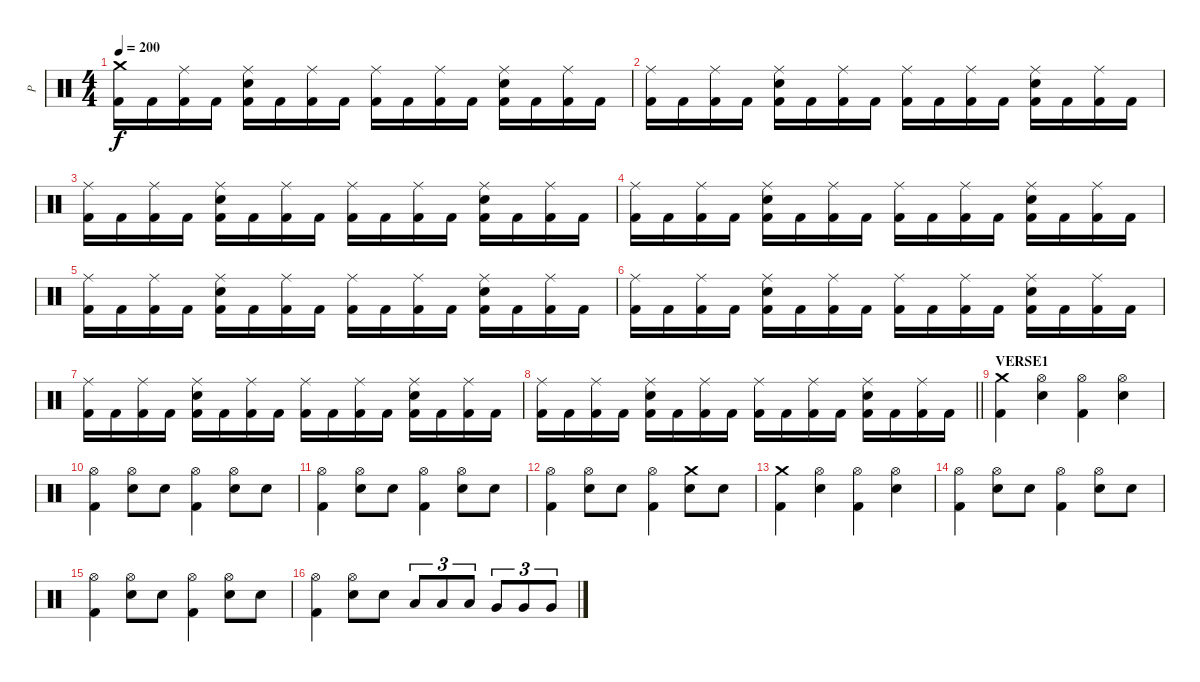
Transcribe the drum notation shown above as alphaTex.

\track ("P" "P") {instrument percussion}
\staff {score}
\articulation defaults
\ts (4 4)
\tempo 200
\clef neutral
\ks c
("Crash medium (hit)" "Kick (hit) 2").16{dy f} "Kick (hit) 2".16 ("Ride (middle)" "Kick (hit) 2").16 "Kick (hit) 2".16 ("Ride (middle)" "Electric Snare (hit)" "Kick (hit) 2").16 "Kick (hit) 2".16 ("Ride (middle)" "Kick (hit) 2").16 "Kick (hit) 2".16 ("Ride (middle)" "Kick (hit) 2").16 "Kick (hit) 2".16 ("Ride (middle)" "Kick (hit) 2").16 "Kick (hit) 2".16 ("Ride (middle)" "Electric Snare (hit)" "Kick (hit) 2").16 "Kick (hit) 2".16 ("Ride (middle)" "Kick (hit) 2").16 "Kick (hit) 2".16 |
("Ride (middle)" "Kick (hit) 2").16 "Kick (hit) 2".16 ("Ride (middle)" "Kick (hit) 2").16 "Kick (hit) 2".16 ("Ride (middle)" "Electric Snare (hit)" "Kick (hit) 2").16 "Kick (hit) 2".16 ("Ride (middle)" "Kick (hit) 2").16 "Kick (hit) 2".16 ("Ride (middle)" "Kick (hit) 2").16 "Kick (hit) 2".16 ("Ride (middle)" "Kick (hit) 2").16 "Kick (hit) 2".16 ("Ride (middle)" "Electric Snare (hit)" "Kick (hit) 2").16 "Kick (hit) 2".16 ("Ride (middle)" "Kick (hit) 2").16 "Kick (hit) 2".16 |
("Ride (middle)" "Kick (hit) 2").16 "Kick (hit) 2".16 ("Ride (middle)" "Kick (hit) 2").16 "Kick (hit) 2".16 ("Ride (middle)" "Electric Snare (hit)" "Kick (hit) 2").16 "Kick (hit) 2".16 ("Ride (middle)" "Kick (hit) 2").16 "Kick (hit) 2".16 ("Ride (middle)" "Kick (hit) 2").16 "Kick (hit) 2".16 ("Ride (middle)" "Kick (hit) 2").16 "Kick (hit) 2".16 ("Ride (middle)" "Electric Snare (hit)" "Kick (hit) 2").16 "Kick (hit) 2".16 ("Ride (middle)" "Kick (hit) 2").16 "Kick (hit) 2".16 |
("Ride (middle)" "Kick (hit) 2").16 "Kick (hit) 2".16 ("Ride (middle)" "Kick (hit) 2").16 "Kick (hit) 2".16 ("Ride (middle)" "Electric Snare (hit)" "Kick (hit) 2").16 "Kick (hit) 2".16 ("Ride (middle)" "Kick (hit) 2").16 "Kick (hit) 2".16 ("Ride (middle)" "Kick (hit) 2").16 "Kick (hit) 2".16 ("Ride (middle)" "Kick (hit) 2").16 "Kick (hit) 2".16 ("Ride (middle)" "Electric Snare (hit)" "Kick (hit) 2").16 "Kick (hit) 2".16 ("Ride (middle)" "Kick (hit) 2").16 "Kick (hit) 2".16 |
("Ride (middle)" "Kick (hit) 2").16 "Kick (hit) 2".16 ("Ride (middle)" "Kick (hit) 2").16 "Kick (hit) 2".16 ("Ride (middle)" "Electric Snare (hit)" "Kick (hit) 2").16 "Kick (hit) 2".16 ("Ride (middle)" "Kick (hit) 2").16 "Kick (hit) 2".16 ("Ride (middle)" "Kick (hit) 2").16 "Kick (hit) 2".16 ("Ride (middle)" "Kick (hit) 2").16 "Kick (hit) 2".16 ("Ride (middle)" "Electric Snare (hit)" "Kick (hit) 2").16 "Kick (hit) 2".16 ("Ride (middle)" "Kick (hit) 2").16 "Kick (hit) 2".16 |
("Ride (middle)" "Kick (hit) 2").16 "Kick (hit) 2".16 ("Ride (middle)" "Kick (hit) 2").16 "Kick (hit) 2".16 ("Ride (middle)" "Electric Snare (hit)" "Kick (hit) 2").16 "Kick (hit) 2".16 ("Ride (middle)" "Kick (hit) 2").16 "Kick (hit) 2".16 ("Ride (middle)" "Kick (hit) 2").16 "Kick (hit) 2".16 ("Ride (middle)" "Kick (hit) 2").16 "Kick (hit) 2".16 ("Ride (middle)" "Electric Snare (hit)" "Kick (hit) 2").16 "Kick (hit) 2".16 ("Ride (middle)" "Kick (hit) 2").16 "Kick (hit) 2".16 |
("Ride (middle)" "Kick (hit) 2").16 "Kick (hit) 2".16 ("Ride (middle)" "Kick (hit) 2").16 "Kick (hit) 2".16 ("Ride (middle)" "Electric Snare (hit)" "Kick (hit) 2").16 "Kick (hit) 2".16 ("Ride (middle)" "Kick (hit) 2").16 "Kick (hit) 2".16 ("Ride (middle)" "Kick (hit) 2").16 "Kick (hit) 2".16 ("Ride (middle)" "Kick (hit) 2").16 "Kick (hit) 2".16 ("Ride (middle)" "Electric Snare (hit)" "Kick (hit) 2").16 "Kick (hit) 2".16 ("Ride (middle)" "Kick (hit) 2").16 "Kick (hit) 2".16 |
\barLineRight lightlight
("Ride (middle)" "Kick (hit) 2").16 "Kick (hit) 2".16 ("Ride (middle)" "Kick (hit) 2").16 "Kick (hit) 2".16 ("Ride (middle)" "Electric Snare (hit)" "Kick (hit) 2").16 "Kick (hit) 2".16 ("Ride (middle)" "Kick (hit) 2").16 "Kick (hit) 2".16 ("Ride (middle)" "Kick (hit) 2").16 "Kick (hit) 2".16 ("Ride (middle)" "Kick (hit) 2").16 "Kick (hit) 2".16 ("Ride (middle)" "Electric Snare (hit)" "Kick (hit) 2").16 "Kick (hit) 2".16 ("Ride (middle)" "Kick (hit) 2").16 "Kick (hit) 2".16 |
\section ("" "VERSE1")
("Crash medium (hit)" "Kick (hit) 2").4 ("Hi-Hat (open)" "Electric Snare (hit)").4 ("Hi-Hat (open)" "Kick (hit) 2").4 ("Hi-Hat (open)" "Electric Snare (hit)").4 |
("Hi-Hat (open)" "Kick (hit) 2").4 ("Hi-Hat (open)" "Electric Snare (hit)").8 "Electric Snare (hit)".8 ("Hi-Hat (open)" "Kick (hit) 2").4 ("Hi-Hat (open)" "Electric Snare (hit)").8 "Electric Snare (hit)".8 |
("Hi-Hat (open)" "Kick (hit) 2").4 ("Hi-Hat (open)" "Electric Snare (hit)").8 "Electric Snare (hit)".8 ("Hi-Hat (open)" "Kick (hit) 2").4 ("Hi-Hat (open)" "Electric Snare (hit)").8 "Electric Snare (hit)".8 |
("Hi-Hat (open)" "Kick (hit) 2").4 ("Hi-Hat (open)" "Electric Snare (hit)").8 "Electric Snare (hit)".8 ("Hi-Hat (open)" "Kick (hit) 2").4 ("Crash medium (hit)" "Electric Snare (hit)").8 "Electric Snare (hit)".8 |
("Crash medium (hit)" "Kick (hit) 2").4 ("Hi-Hat (open)" "Electric Snare (hit)").4 ("Hi-Hat (open)" "Kick (hit) 2").4 ("Hi-Hat (open)" "Electric Snare (hit)").4 |
("Hi-Hat (open)" "Kick (hit) 2").4 ("Hi-Hat (open)" "Electric Snare (hit)").8 "Electric Snare (hit)".8 ("Hi-Hat (open)" "Kick (hit) 2").4 ("Hi-Hat (open)" "Electric Snare (hit)").8 "Electric Snare (hit)".8 |
("Hi-Hat (open)" "Kick (hit) 2").4 ("Hi-Hat (open)" "Electric Snare (hit)").8 "Electric Snare (hit)".8 ("Hi-Hat (open)" "Kick (hit) 2").4 ("Hi-Hat (open)" "Electric Snare (hit)").8 "Electric Snare (hit)".8 |
("Hi-Hat (open)" "Kick (hit) 2").4 ("Hi-Hat (open)" "Electric Snare (hit)").8 "Electric Snare (hit)".8 "Low Tom (hit)".8{tu (3 2)} "Low Tom (hit)".8{tu (3 2)} "Low Tom (hit)".8{tu (3 2)} "Very Low Tom (hit)".8{tu (3 2)} "Very Low Tom (hit)".8{tu (3 2)} "Very Low Tom (hit)".8{tu (3 2)}
